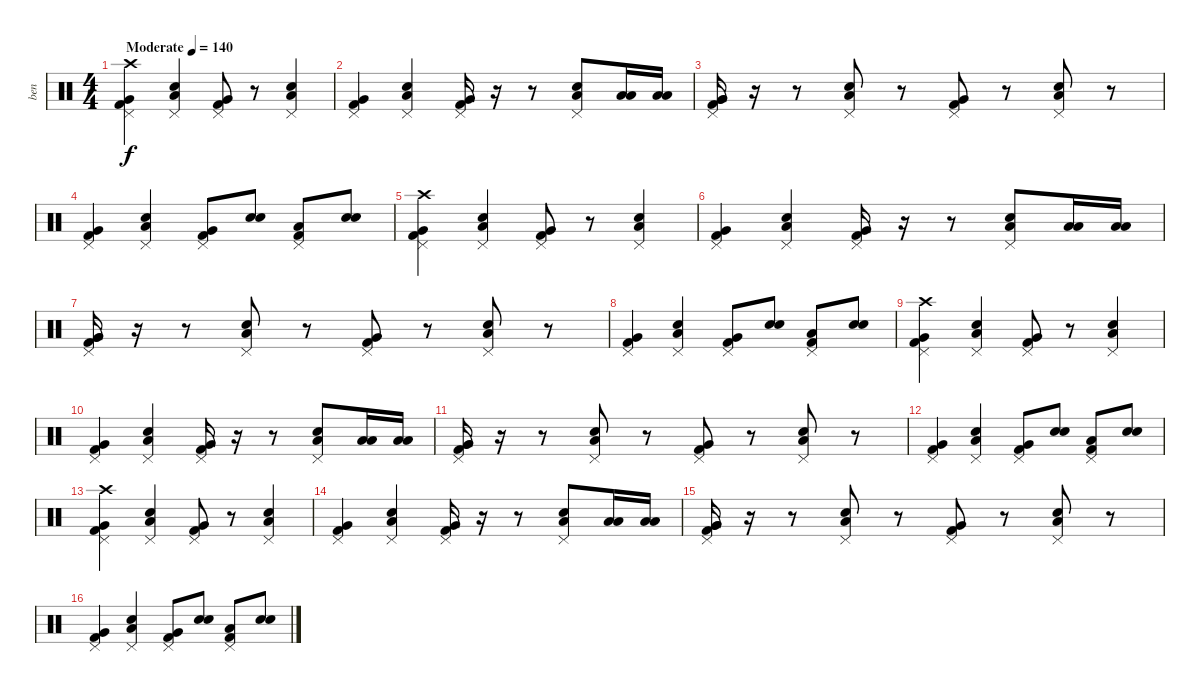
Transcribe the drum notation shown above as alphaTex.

\track ("ben" "ben") {instrument percussion}
\staff {score}
\articulation defaults
\ts (4 4)
\tempo (140 "Moderate")
\clef neutral
\ks c
("Kick (hit) 2" "Very Low Tom (hit)" "Pedal Hi-Hat (hit)" "Crash high (hit)").4{dy f} ("Electric Snare (hit)" "Low Tom (hit)" "Pedal Hi-Hat (hit)").4 ("Kick (hit) 2" "Very Low Tom (hit)" "Pedal Hi-Hat (hit)").8 r.8 ("Electric Snare (hit)" "Low Tom (hit)" "Pedal Hi-Hat (hit)").4 |
("Kick (hit) 2" "Very Low Tom (hit)" "Pedal Hi-Hat (hit)").4 ("Electric Snare (hit)" "Low Tom (hit)" "Pedal Hi-Hat (hit)").4 ("Pedal Hi-Hat (hit)" "Very Low Tom (hit)" "Kick (hit) 2").16 r.16 r.8 ("Pedal Hi-Hat (hit)" "Low Tom (hit)" "Electric Snare (hit)").8 ("Low Tom (hit)" "Low Tom (hit)").16 ("Low Tom (hit)" "Low Tom (hit)").16 |
("Very Low Tom (hit)" "Very Low Tom (hit)" "Pedal Hi-Hat (hit)" "Kick (hit) 2").16 r.16 r.8 ("Electric Snare (hit)" "Low Tom (hit)" "Pedal Hi-Hat (hit)").8 r.8 ("Kick (hit) 2" "Very Low Tom (hit)" "Pedal Hi-Hat (hit)").8 r.8 ("Electric Snare (hit)" "Low Tom (hit)" "Pedal Hi-Hat (hit)").8 r.8 |
("Kick (hit) 2" "Very Low Tom (hit)" "Pedal Hi-Hat (hit)").4 ("Electric Snare (hit)" "Low Tom (hit)" "Pedal Hi-Hat (hit)").4 ("Kick (hit) 2" "Very Low Tom (hit)" "Pedal Hi-Hat (hit)").8 ("Electric Snare (hit)" "Electric Snare (hit)").8 ("Kick (hit) 2" "Low Tom (hit)" "Pedal Hi-Hat (hit)").8 ("Electric Snare (hit)" "Electric Snare (hit)").8 |
("Kick (hit) 2" "Very Low Tom (hit)" "Pedal Hi-Hat (hit)" "Crash high (hit)").4 ("Electric Snare (hit)" "Low Tom (hit)" "Pedal Hi-Hat (hit)").4 ("Kick (hit) 2" "Very Low Tom (hit)" "Pedal Hi-Hat (hit)").8 r.8 ("Electric Snare (hit)" "Low Tom (hit)" "Pedal Hi-Hat (hit)").4 |
("Kick (hit) 2" "Very Low Tom (hit)" "Pedal Hi-Hat (hit)").4 ("Electric Snare (hit)" "Low Tom (hit)" "Pedal Hi-Hat (hit)").4 ("Pedal Hi-Hat (hit)" "Very Low Tom (hit)" "Kick (hit) 2").16 r.16 r.8 ("Pedal Hi-Hat (hit)" "Low Tom (hit)" "Electric Snare (hit)").8 ("Low Tom (hit)" "Low Tom (hit)").16 ("Low Tom (hit)" "Low Tom (hit)").16 |
("Very Low Tom (hit)" "Very Low Tom (hit)" "Pedal Hi-Hat (hit)" "Kick (hit) 2").16 r.16 r.8 ("Electric Snare (hit)" "Low Tom (hit)" "Pedal Hi-Hat (hit)").8 r.8 ("Kick (hit) 2" "Very Low Tom (hit)" "Pedal Hi-Hat (hit)").8 r.8 ("Electric Snare (hit)" "Low Tom (hit)" "Pedal Hi-Hat (hit)").8 r.8 |
("Kick (hit) 2" "Very Low Tom (hit)" "Pedal Hi-Hat (hit)").4 ("Electric Snare (hit)" "Low Tom (hit)" "Pedal Hi-Hat (hit)").4 ("Kick (hit) 2" "Very Low Tom (hit)" "Pedal Hi-Hat (hit)").8 ("Electric Snare (hit)" "Electric Snare (hit)").8 ("Kick (hit) 2" "Low Tom (hit)" "Pedal Hi-Hat (hit)").8 ("Electric Snare (hit)" "Electric Snare (hit)").8 |
("Kick (hit) 2" "Very Low Tom (hit)" "Pedal Hi-Hat (hit)" "Crash high (hit)").4 ("Electric Snare (hit)" "Low Tom (hit)" "Pedal Hi-Hat (hit)").4 ("Kick (hit) 2" "Very Low Tom (hit)" "Pedal Hi-Hat (hit)").8 r.8 ("Electric Snare (hit)" "Low Tom (hit)" "Pedal Hi-Hat (hit)").4 |
("Kick (hit) 2" "Very Low Tom (hit)" "Pedal Hi-Hat (hit)").4 ("Electric Snare (hit)" "Low Tom (hit)" "Pedal Hi-Hat (hit)").4 ("Pedal Hi-Hat (hit)" "Very Low Tom (hit)" "Kick (hit) 2").16 r.16 r.8 ("Pedal Hi-Hat (hit)" "Low Tom (hit)" "Electric Snare (hit)").8 ("Low Tom (hit)" "Low Tom (hit)").16 ("Low Tom (hit)" "Low Tom (hit)").16 |
("Very Low Tom (hit)" "Very Low Tom (hit)" "Pedal Hi-Hat (hit)" "Kick (hit) 2").16 r.16 r.8 ("Electric Snare (hit)" "Low Tom (hit)" "Pedal Hi-Hat (hit)").8 r.8 ("Kick (hit) 2" "Very Low Tom (hit)" "Pedal Hi-Hat (hit)").8 r.8 ("Electric Snare (hit)" "Low Tom (hit)" "Pedal Hi-Hat (hit)").8 r.8 |
("Kick (hit) 2" "Very Low Tom (hit)" "Pedal Hi-Hat (hit)").4 ("Electric Snare (hit)" "Low Tom (hit)" "Pedal Hi-Hat (hit)").4 ("Kick (hit) 2" "Very Low Tom (hit)" "Pedal Hi-Hat (hit)").8 ("Electric Snare (hit)" "Electric Snare (hit)").8 ("Kick (hit) 2" "Low Tom (hit)" "Pedal Hi-Hat (hit)").8 ("Electric Snare (hit)" "Electric Snare (hit)").8 |
("Kick (hit) 2" "Very Low Tom (hit)" "Pedal Hi-Hat (hit)" "Crash high (hit)").4 ("Electric Snare (hit)" "Low Tom (hit)" "Pedal Hi-Hat (hit)").4 ("Kick (hit) 2" "Very Low Tom (hit)" "Pedal Hi-Hat (hit)").8 r.8 ("Electric Snare (hit)" "Low Tom (hit)" "Pedal Hi-Hat (hit)").4 |
("Kick (hit) 2" "Very Low Tom (hit)" "Pedal Hi-Hat (hit)").4 ("Electric Snare (hit)" "Low Tom (hit)" "Pedal Hi-Hat (hit)").4 ("Pedal Hi-Hat (hit)" "Very Low Tom (hit)" "Kick (hit) 2").16 r.16 r.8 ("Pedal Hi-Hat (hit)" "Low Tom (hit)" "Electric Snare (hit)").8 ("Low Tom (hit)" "Low Tom (hit)").16 ("Low Tom (hit)" "Low Tom (hit)").16 |
("Very Low Tom (hit)" "Very Low Tom (hit)" "Pedal Hi-Hat (hit)" "Kick (hit) 2").16 r.16 r.8 ("Electric Snare (hit)" "Low Tom (hit)" "Pedal Hi-Hat (hit)").8 r.8 ("Kick (hit) 2" "Very Low Tom (hit)" "Pedal Hi-Hat (hit)").8 r.8 ("Electric Snare (hit)" "Low Tom (hit)" "Pedal Hi-Hat (hit)").8 r.8 |
("Kick (hit) 2" "Very Low Tom (hit)" "Pedal Hi-Hat (hit)").4 ("Electric Snare (hit)" "Low Tom (hit)" "Pedal Hi-Hat (hit)").4 ("Kick (hit) 2" "Very Low Tom (hit)" "Pedal Hi-Hat (hit)").8 ("Electric Snare (hit)" "Electric Snare (hit)").8 ("Kick (hit) 2" "Low Tom (hit)" "Pedal Hi-Hat (hit)").8 ("Electric Snare (hit)" "Electric Snare (hit)").8
